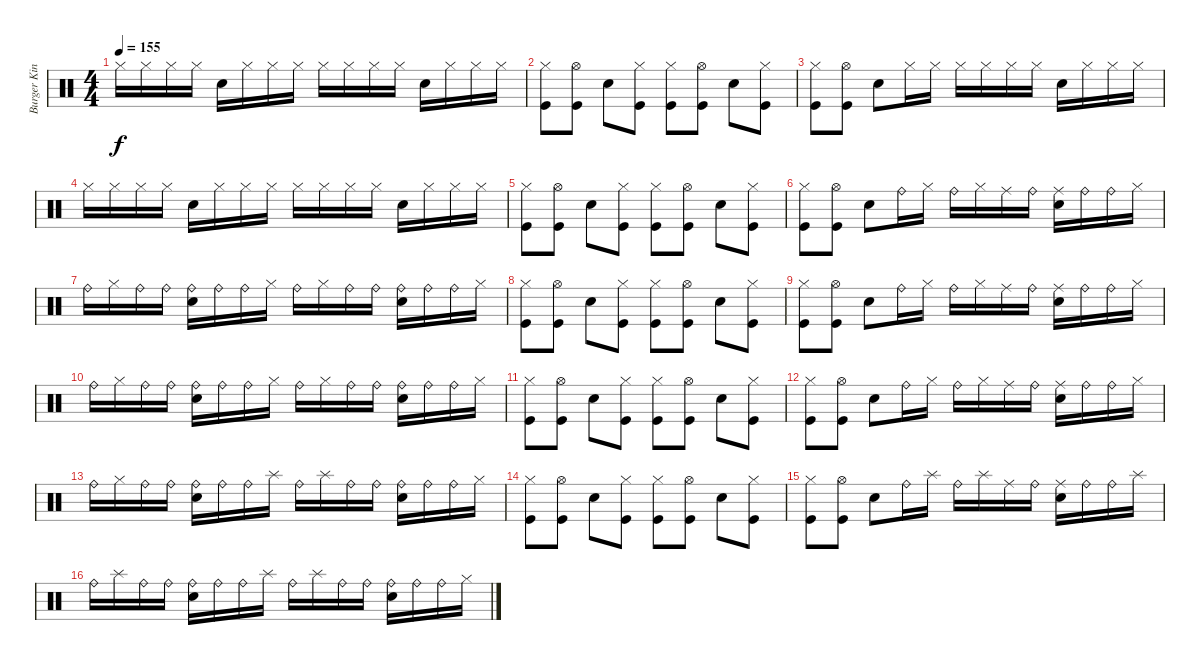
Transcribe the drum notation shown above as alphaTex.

\track ("Burger King" "Burger Kin") {instrument percussion}
\staff {score}
\articulation defaults
\ts (4 4)
\tempo 155
\clef neutral
\ks c "Hi-Hat (closed)".16{dy f} "Hi-Hat (closed)".16 "Hi-Hat (closed)".16 "Hi-Hat (closed)".16 "Snare (hit) 2".16 "Hi-Hat (closed)".16 "Hi-Hat (closed)".16 "Hi-Hat (closed)".16 "Hi-Hat (closed)".16 "Hi-Hat (closed)".16 "Hi-Hat (closed)".16 "Hi-Hat (closed)".16 "Snare (hit) 2".16 "Hi-Hat (closed)".16 "Hi-Hat (closed)".16 "Hi-Hat (closed)".16
|
("Kick (hit)" "Hi-Hat (closed)").8 ("Kick (hit)" "Hi-Hat (open)").8 "Snare (hit) 2".8 ("Kick (hit)" "Hi-Hat (closed)").8 ("Kick (hit)" "Hi-Hat (closed)").8 ("Kick (hit)" "Hi-Hat (open)").8 "Snare (hit) 2".8 ("Hi-Hat (closed)" "Kick (hit)").8 |
("Kick (hit)" "Hi-Hat (closed)").8 ("Kick (hit)" "Hi-Hat (open)").8 "Snare (hit) 2".8 "Hi-Hat (closed)".16 "Hi-Hat (closed)".16 "Hi-Hat (closed)".16 "Hi-Hat (closed)".16 "Hi-Hat (closed)".16 "Hi-Hat (closed)".16 "Snare (hit) 2".16 "Hi-Hat (closed)".16 "Hi-Hat (closed)".16 "Hi-Hat (closed)".16 |
"Hi-Hat (closed)".16 "Hi-Hat (closed)".16 "Hi-Hat (closed)".16 "Hi-Hat (closed)".16 "Snare (hit) 2".16 "Hi-Hat (closed)".16 "Hi-Hat (closed)".16 "Hi-Hat (closed)".16 "Hi-Hat (closed)".16 "Hi-Hat (closed)".16 "Hi-Hat (closed)".16 "Hi-Hat (closed)".16 "Snare (hit) 2".16 "Hi-Hat (closed)".16 "Hi-Hat (closed)".16 "Hi-Hat (closed)".16 |
("Kick (hit)" "Hi-Hat (closed)").8 ("Kick (hit)" "Hi-Hat (open)").8 "Snare (hit) 2".8 ("Kick (hit)" "Hi-Hat (closed)").8 ("Kick (hit)" "Hi-Hat (closed)").8 ("Kick (hit)" "Hi-Hat (open)").8 "Snare (hit) 2".8 ("Hi-Hat (closed)" "Kick (hit)").8 |
("Kick (hit)" "Hi-Hat (closed)").8 ("Kick (hit)" "Hi-Hat (open)").8 "Snare (hit) 2".8 "Ride (bell)".16 "Hi-Hat (closed)".16 "Ride (bell)".16 "Hi-Hat (closed)".16 "Ride (middle)".16 "Ride (bell)".16 ("Snare (hit) 2" "Ride (middle)").16 "Ride (bell)".16 "Ride (bell)".16 "Hi-Hat (closed)".16 |
"Ride (bell)".16 "Hi-Hat (closed)".16 "Ride (bell)".16 "Ride (bell)".16 ("Ride (bell)" "Snare (hit) 2").16 "Ride (bell)".16 "Ride (bell)".16 "Hi-Hat (closed)".16 "Ride (bell)".16 "Hi-Hat (closed)".16 "Ride (bell)".16 "Ride (bell)".16 ("Snare (hit) 2" "Ride (bell)").16 "Ride (bell)".16 "Ride (bell)".16 "Hi-Hat (closed)".16 |
("Kick (hit)" "Hi-Hat (closed)").8 ("Kick (hit)" "Hi-Hat (open)").8 "Snare (hit) 2".8 ("Kick (hit)" "Hi-Hat (closed)").8 ("Kick (hit)" "Hi-Hat (closed)").8 ("Kick (hit)" "Hi-Hat (open)").8 "Snare (hit) 2".8 ("Hi-Hat (closed)" "Kick (hit)").8 |
("Kick (hit)" "Hi-Hat (closed)").8 ("Kick (hit)" "Hi-Hat (open)").8 "Snare (hit) 2".8 "Ride (bell)".16 "Hi-Hat (closed)".16 "Ride (bell)".16 "Hi-Hat (closed)".16 "Ride (middle)".16 "Ride (bell)".16 ("Snare (hit) 2" "Ride (middle)").16 "Ride (bell)".16 "Ride (bell)".16 "Hi-Hat (closed)".16 |
"Ride (bell)".16 "Hi-Hat (closed)".16 "Ride (bell)".16 "Ride (bell)".16 ("Ride (bell)" "Snare (hit) 2").16 "Ride (bell)".16 "Ride (bell)".16 "Hi-Hat (closed)".16 "Ride (bell)".16 "Hi-Hat (closed)".16 "Ride (bell)".16 "Ride (bell)".16 ("Snare (hit) 2" "Ride (bell)").16 "Ride (bell)".16 "Ride (bell)".16 "Hi-Hat (closed)".16 |
("Kick (hit)" "Hi-Hat (closed)").8 ("Kick (hit)" "Hi-Hat (open)").8 "Snare (hit) 2".8 ("Kick (hit)" "Hi-Hat (closed)").8 ("Kick (hit)" "Hi-Hat (closed)").8 ("Kick (hit)" "Hi-Hat (open)").8 "Snare (hit) 2".8 ("Hi-Hat (closed)" "Kick (hit)").8 |
("Kick (hit)" "Hi-Hat (closed)").8 ("Kick (hit)" "Hi-Hat (open)").8 "Snare (hit) 2".8 "Ride (bell)".16 "Hi-Hat (closed)".16 "Ride (bell)".16 "Hi-Hat (closed)".16 "Ride (middle)".16 "Ride (bell)".16 ("Snare (hit) 2" "Ride (middle)").16 "Ride (bell)".16 "Ride (bell)".16 "Hi-Hat (closed)".16 |
"Ride (bell)".16 "Hi-Hat (closed)".16 "Ride (bell)".16 "Ride (bell)".16 ("Ride (bell)" "Snare (hit) 2").16 "Ride (bell)".16 "Ride (bell)".16 "Splash (hit)".16 "Ride (bell)".16 "Splash (hit)".16 "Ride (bell)".16 "Ride (bell)".16 ("Snare (hit) 2" "Ride (bell)").16 "Ride (bell)".16 "Ride (bell)".16 "Hi-Hat (closed)".16 |
("Kick (hit)" "Hi-Hat (closed)").8 ("Kick (hit)" "Hi-Hat (open)").8 "Snare (hit) 2".8 ("Kick (hit)" "Hi-Hat (closed)").8 ("Kick (hit)" "Hi-Hat (closed)").8 ("Kick (hit)" "Hi-Hat (open)").8 "Snare (hit) 2".8 ("Hi-Hat (closed)" "Kick (hit)").8 |
("Kick (hit)" "Hi-Hat (closed)").8 ("Kick (hit)" "Hi-Hat (open)").8 "Snare (hit) 2".8 "Ride (bell)".16 "Splash (hit)".16 "Ride (bell)".16 "Splash (hit)".16 "Ride (middle)".16 "Ride (bell)".16 ("Snare (hit) 2" "Ride (middle)").16 "Ride (bell)".16 "Ride (bell)".16 "Splash (hit)".16 |
"Ride (bell)".16 "Splash (hit)".16 "Ride (bell)".16 "Ride (bell)".16 ("Ride (bell)" "Snare (hit) 2").16 "Ride (bell)".16 "Ride (bell)".16 "Splash (hit)".16 "Ride (bell)".16 "Splash (hit)".16 "Ride (bell)".16 "Ride (bell)".16 ("Snare (hit) 2" "Ride (bell)").16 "Ride (bell)".16 "Ride (bell)".16 "Hi-Hat (closed)".16
